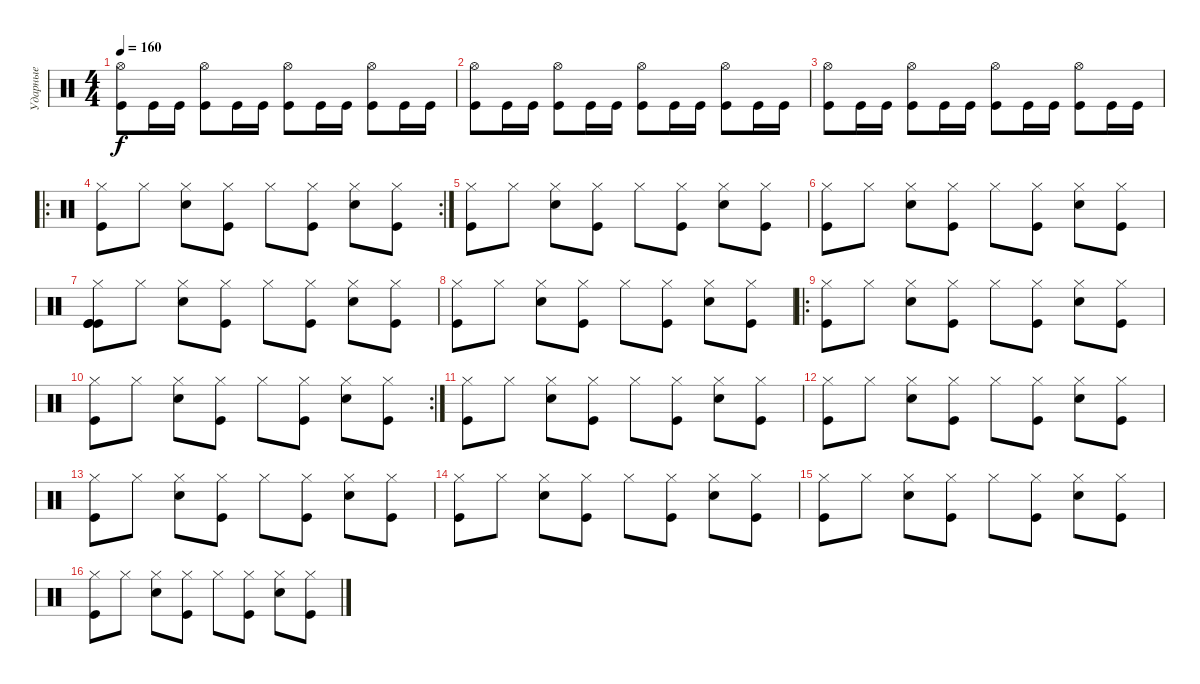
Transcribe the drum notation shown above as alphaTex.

\track ("Ударные" "Ударные") {instrument percussion}
\staff {score}
\articulation defaults
\ts (4 4)
\tempo 160
\clef neutral
\ks aminor
("Kick (hit)" "Hi-Hat (open)").8{dy f} "Kick (hit)".16 "Kick (hit)".16 ("Kick (hit)" "Hi-Hat (open)").8 "Kick (hit)".16 "Kick (hit)".16 ("Kick (hit)" "Hi-Hat (open)").8 "Kick (hit)".16 "Kick (hit)".16 ("Kick (hit)" "Hi-Hat (open)").8 "Kick (hit)".16 "Kick (hit)".16 |
("Kick (hit)" "Hi-Hat (open)").8 "Kick (hit)".16 "Kick (hit)".16 ("Kick (hit)" "Hi-Hat (open)").8 "Kick (hit)".16 "Kick (hit)".16 ("Kick (hit)" "Hi-Hat (open)").8 "Kick (hit)".16 "Kick (hit)".16 ("Kick (hit)" "Hi-Hat (open)").8 "Kick (hit)".16 "Kick (hit)".16 |
("Kick (hit)" "Hi-Hat (open)").8 "Kick (hit)".16 "Kick (hit)".16 ("Kick (hit)" "Hi-Hat (open)").8 "Kick (hit)".16 "Kick (hit)".16 ("Kick (hit)" "Hi-Hat (open)").8 "Kick (hit)".16 "Kick (hit)".16 ("Kick (hit)" "Hi-Hat (open)").8 "Kick (hit)".16 "Kick (hit)".16 |
\ro
\rc 2
("Hi-Hat (closed)" "Kick (hit)").8 "Hi-Hat (closed)".8 ("Hi-Hat (closed)" "Snare (hit) 2").8 ("Hi-Hat (closed)" "Kick (hit)").8 "Hi-Hat (closed)".8 ("Hi-Hat (closed)" "Kick (hit)").8 ("Hi-Hat (closed)" "Snare (hit) 2").8 ("Hi-Hat (closed)" "Kick (hit)").8 |
("Hi-Hat (closed)" "Kick (hit)").8 "Hi-Hat (closed)".8 ("Hi-Hat (closed)" "Snare (hit) 2").8 ("Hi-Hat (closed)" "Kick (hit)").8 "Hi-Hat (closed)".8 ("Hi-Hat (closed)" "Kick (hit)").8 ("Hi-Hat (closed)" "Snare (hit) 2").8 ("Hi-Hat (closed)" "Kick (hit)").8 |
("Hi-Hat (closed)" "Kick (hit)").8 "Hi-Hat (closed)".8 ("Hi-Hat (closed)" "Snare (hit) 2").8 ("Hi-Hat (closed)" "Kick (hit)").8 "Hi-Hat (closed)".8 ("Hi-Hat (closed)" "Kick (hit)").8 ("Hi-Hat (closed)" "Snare (hit) 2").8 ("Hi-Hat (closed)" "Kick (hit)").8 |
("Hi-Hat (closed)" "Kick (hit)" "Kick (hit)" "Kick (hit)").8 "Hi-Hat (closed)".8 ("Hi-Hat (closed)" "Snare (hit) 2").8 ("Hi-Hat (closed)" "Kick (hit)").8 "Hi-Hat (closed)".8 ("Hi-Hat (closed)" "Kick (hit)").8 ("Hi-Hat (closed)" "Snare (hit) 2").8 ("Hi-Hat (closed)" "Kick (hit)").8 |
("Hi-Hat (closed)" "Kick (hit)").8 "Hi-Hat (closed)".8 ("Hi-Hat (closed)" "Snare (hit) 2").8 ("Hi-Hat (closed)" "Kick (hit)").8 "Hi-Hat (closed)".8 ("Hi-Hat (closed)" "Kick (hit)").8 ("Hi-Hat (closed)" "Snare (hit) 2").8 ("Hi-Hat (closed)" "Kick (hit)").8 |
\ro
("Hi-Hat (closed)" "Kick (hit)").8 "Hi-Hat (closed)".8 ("Hi-Hat (closed)" "Snare (hit) 2").8 ("Hi-Hat (closed)" "Kick (hit)").8 "Hi-Hat (closed)".8 ("Hi-Hat (closed)" "Kick (hit)").8 ("Hi-Hat (closed)" "Snare (hit) 2").8 ("Hi-Hat (closed)" "Kick (hit)").8 |
\rc 2
("Hi-Hat (closed)" "Kick (hit)").8 "Hi-Hat (closed)".8 ("Hi-Hat (closed)" "Snare (hit) 2").8 ("Hi-Hat (closed)" "Kick (hit)").8 "Hi-Hat (closed)".8 ("Hi-Hat (closed)" "Kick (hit)").8 ("Hi-Hat (closed)" "Snare (hit) 2").8 ("Hi-Hat (closed)" "Kick (hit)").8 |
("Kick (hit)" "Hi-Hat (closed)").8 "Hi-Hat (closed)".8 ("Snare (hit) 2" "Hi-Hat (closed)").8 ("Kick (hit)" "Hi-Hat (closed)").8 "Hi-Hat (closed)".8 ("Kick (hit)" "Hi-Hat (closed)").8 ("Snare (hit) 2" "Hi-Hat (closed)").8 ("Kick (hit)" "Hi-Hat (closed)").8 |
("Kick (hit)" "Hi-Hat (closed)").8 "Hi-Hat (closed)".8 ("Snare (hit) 2" "Hi-Hat (closed)").8 ("Kick (hit)" "Hi-Hat (closed)").8 "Hi-Hat (closed)".8 ("Kick (hit)" "Hi-Hat (closed)").8 ("Snare (hit) 2" "Hi-Hat (closed)").8 ("Kick (hit)" "Hi-Hat (closed)").8 |
("Kick (hit)" "Hi-Hat (closed)").8 "Hi-Hat (closed)".8 ("Snare (hit) 2" "Hi-Hat (closed)").8 ("Kick (hit)" "Hi-Hat (closed)").8 "Hi-Hat (closed)".8 ("Kick (hit)" "Hi-Hat (closed)").8 ("Snare (hit) 2" "Hi-Hat (closed)").8 ("Kick (hit)" "Hi-Hat (closed)").8 |
("Hi-Hat (closed)" "Kick (hit)").8 "Hi-Hat (closed)".8 ("Hi-Hat (closed)" "Snare (hit) 2").8 ("Hi-Hat (closed)" "Kick (hit)").8 "Hi-Hat (closed)".8 ("Hi-Hat (closed)" "Kick (hit)").8 ("Hi-Hat (closed)" "Snare (hit) 2").8 ("Hi-Hat (closed)" "Kick (hit)").8 |
("Hi-Hat (closed)" "Kick (hit)").8 "Hi-Hat (closed)".8 ("Hi-Hat (closed)" "Snare (hit) 2").8 ("Hi-Hat (closed)" "Kick (hit)").8 "Hi-Hat (closed)".8 ("Hi-Hat (closed)" "Kick (hit)").8 ("Hi-Hat (closed)" "Snare (hit) 2").8 ("Hi-Hat (closed)" "Kick (hit)").8 |
("Hi-Hat (closed)" "Kick (hit)").8 "Hi-Hat (closed)".8 ("Hi-Hat (closed)" "Snare (hit) 2").8 ("Hi-Hat (closed)" "Kick (hit)").8 "Hi-Hat (closed)".8 ("Hi-Hat (closed)" "Kick (hit)").8 ("Hi-Hat (closed)" "Snare (hit) 2").8 ("Hi-Hat (closed)" "Kick (hit)").8
